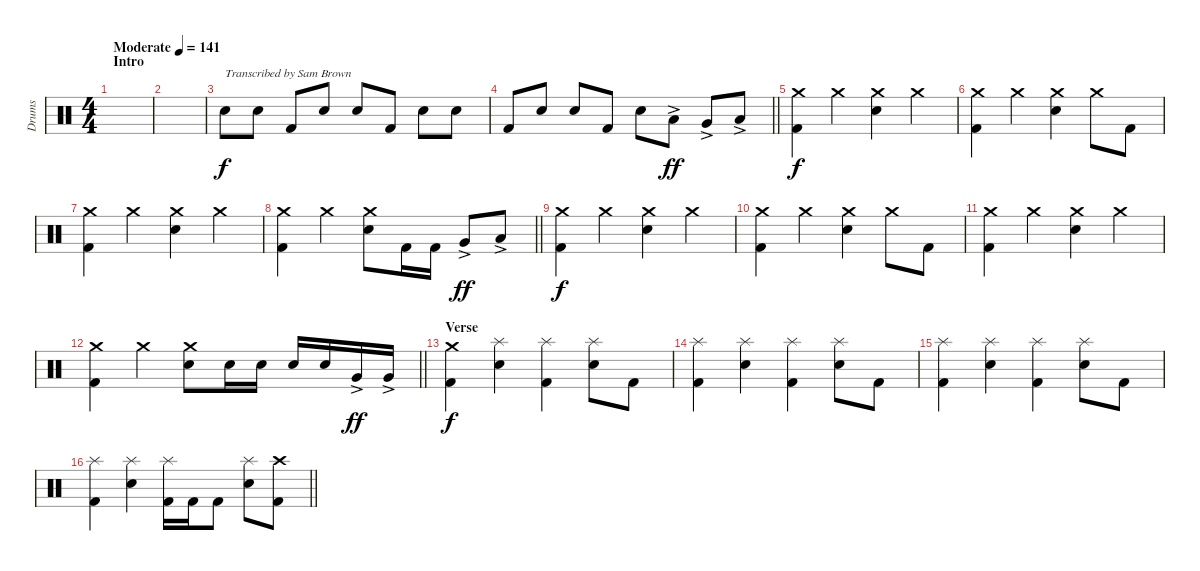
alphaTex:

\track ("Drums" "Drums") {instrument percussion}
\staff {score}
\articulation defaults
\ts (4 4)
\section ("" "Intro")
\tempo (141 "Moderate")
\clef neutral
\ks c
|
|
"Snare (hit) 2".8{txt "Transcribed by Sam Brown"} "Snare (hit) 2".8 "Kick (hit) 2".8 "Snare (hit) 2".8 "Snare (hit) 2".8 "Kick (hit) 2".8 "Snare (hit) 2".8 "Snare (hit) 2".8 |
\barLineRight lightlight "Kick (hit) 2".8 "Snare (hit) 2".8 "Snare (hit) 2".8 "Kick (hit) 2".8 "Snare (hit) 2".8 "Low Tom (hit)"{ac}.8{dy ff} "Very Low Tom (hit)"{ac}.8 "Low Floor Tom (hit)"{ac}.8
|
\section ("" "")
("Kick (hit) 2" "Crash medium (hit)").4{dy f} "Crash medium (hit)".4 ("Snare (hit) 2" "Crash medium (hit)").4 "Crash medium (hit)".4 |
("Kick (hit) 2" "Crash medium (hit)").4 "Crash medium (hit)".4 ("Snare (hit) 2" "Crash medium (hit)").4 "Crash medium (hit)".8 "Kick (hit) 2".8 |
("Kick (hit) 2" "Crash medium (hit)").4 "Crash medium (hit)".4 ("Snare (hit) 2" "Crash medium (hit)").4 "Crash medium (hit)".4 |
\barLineRight lightlight
("Kick (hit) 2" "Crash medium (hit)").4 "Crash medium (hit)".4 ("Snare (hit) 2" "Crash medium (hit)").8 "Kick (hit) 2".16 "Kick (hit) 2".16 "Very Low Tom (hit)"{ac}.8{dy ff} "Low Floor Tom (hit)"{ac}.8 |
\section ("" "")
("Kick (hit) 2" "Crash medium (hit)").4{dy f} "Crash medium (hit)".4 ("Snare (hit) 2" "Crash medium (hit)").4 "Crash medium (hit)".4 |
("Kick (hit) 2" "Crash medium (hit)").4 "Crash medium (hit)".4 ("Snare (hit) 2" "Crash medium (hit)").4 "Crash medium (hit)".8 "Kick (hit) 2".8 |
("Kick (hit) 2" "Crash medium (hit)").4 "Crash medium (hit)".4 ("Snare (hit) 2" "Crash medium (hit)").4 "Crash medium (hit)".4 |
\barLineRight lightlight
("Kick (hit) 2" "Crash medium (hit)").4 "Crash medium (hit)".4 ("Snare (hit) 2" "Crash medium (hit)").8 "Snare (hit) 2".16 "Snare (hit) 2".16 "Snare (hit) 2".16 "Snare (hit) 2".16 "Very Low Tom (hit)"{ac}.16{dy ff} "Very Low Tom (hit)"{ac}.16 |
\section ("" "Verse")
("Kick (hit) 2" "Crash medium (hit)").4{dy f} ("Snare (hit) 2" "Splash (hit)").4 ("Kick (hit) 2" "Splash (hit)").4 ("Snare (hit) 2" "Splash (hit)").8 "Kick (hit) 2".8 |
("Kick (hit) 2" "Splash (hit)").4 ("Snare (hit) 2" "Splash (hit)").4 ("Kick (hit) 2" "Splash (hit)").4 ("Snare (hit) 2" "Splash (hit)").8 "Kick (hit) 2".8 |
("Kick (hit) 2" "Splash (hit)").4 ("Snare (hit) 2" "Splash (hit)").4 ("Kick (hit) 2" "Splash (hit)").4 ("Snare (hit) 2" "Splash (hit)").8 "Kick (hit) 2".8 |
\barLineRight lightlight
("Kick (hit) 2" "Splash (hit)").4 ("Snare (hit) 2" "Splash (hit)").4 ("Kick (hit) 2" "Splash (hit)").16 "Kick (hit) 2".16 "Kick (hit) 2".8 ("Snare (hit) 2" "Splash (hit)").8 ("Kick (hit) 2" "Crash high (hit)").8
